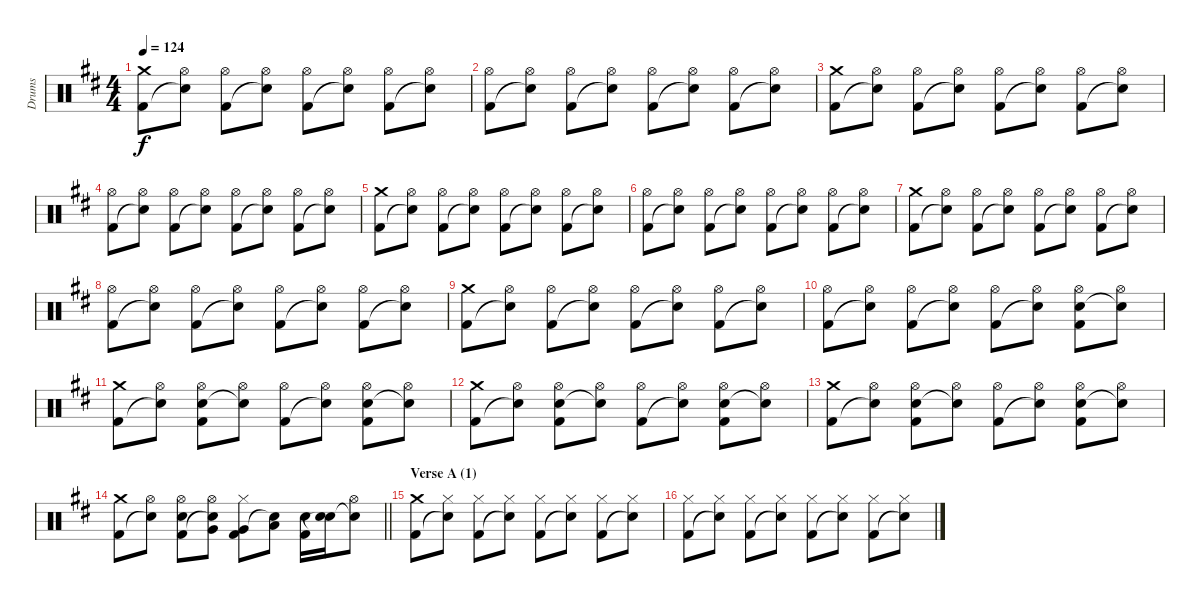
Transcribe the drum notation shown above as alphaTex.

\track ("Drums" "Drums") {instrument percussion}
\staff {score}
\articulation defaults
\ts (4 4)
\tempo 124
\clef neutral
\ks d
("Crash medium (hit)" "Kick (hit) 2").8{dy f} ("Hi-Hat (open)" "Snare (hit)"{t}).8 ("Hi-Hat (open)" "Kick (hit) 2").8 ("Hi-Hat (open)" "Snare (hit)"{t}).8 ("Hi-Hat (open)" "Kick (hit) 2").8 ("Hi-Hat (open)" "Snare (hit)"{t}).8 ("Hi-Hat (open)" "Kick (hit) 2").8 ("Hi-Hat (open)" "Snare (hit)"{t}).8 |
("Hi-Hat (open)" "Kick (hit) 2").8 ("Hi-Hat (open)" "Snare (hit)"{t}).8 ("Hi-Hat (open)" "Kick (hit) 2").8 ("Hi-Hat (open)" "Snare (hit)"{t}).8 ("Hi-Hat (open)" "Kick (hit) 2").8 ("Hi-Hat (open)" "Snare (hit)"{t}).8 ("Hi-Hat (open)" "Kick (hit) 2").8 ("Hi-Hat (open)" "Snare (hit)"{t}).8 |
("Crash medium (hit)" "Kick (hit) 2").8 ("Hi-Hat (open)" "Snare (hit)"{t}).8 ("Hi-Hat (open)" "Kick (hit) 2").8 ("Hi-Hat (open)" "Snare (hit)"{t}).8 ("Hi-Hat (open)" "Kick (hit) 2").8 ("Hi-Hat (open)" "Snare (hit)"{t}).8 ("Hi-Hat (open)" "Kick (hit) 2").8 ("Hi-Hat (open)" "Snare (hit)"{t}).8 |
("Hi-Hat (open)" "Kick (hit) 2").8 ("Hi-Hat (open)" "Snare (hit)"{t}).8 ("Hi-Hat (open)" "Kick (hit) 2").8 ("Hi-Hat (open)" "Snare (hit)"{t}).8 ("Hi-Hat (open)" "Kick (hit) 2").8 ("Hi-Hat (open)" "Snare (hit)"{t}).8 ("Hi-Hat (open)" "Kick (hit) 2").8 ("Hi-Hat (open)" "Snare (hit)"{t}).8 |
("Crash medium (hit)" "Kick (hit) 2").8 ("Hi-Hat (open)" "Snare (hit)"{t}).8 ("Hi-Hat (open)" "Kick (hit) 2").8 ("Hi-Hat (open)" "Snare (hit)"{t}).8 ("Hi-Hat (open)" "Kick (hit) 2").8 ("Hi-Hat (open)" "Snare (hit)"{t}).8 ("Hi-Hat (open)" "Kick (hit) 2").8 ("Hi-Hat (open)" "Snare (hit)"{t}).8 |
("Hi-Hat (open)" "Kick (hit) 2").8 ("Hi-Hat (open)" "Snare (hit)"{t}).8 ("Hi-Hat (open)" "Kick (hit) 2").8 ("Hi-Hat (open)" "Snare (hit)"{t}).8 ("Hi-Hat (open)" "Kick (hit) 2").8 ("Hi-Hat (open)" "Snare (hit)"{t}).8 ("Hi-Hat (open)" "Kick (hit) 2").8 ("Hi-Hat (open)" "Snare (hit)"{t}).8 |
("Crash medium (hit)" "Kick (hit) 2").8 ("Hi-Hat (open)" "Snare (hit)"{t}).8 ("Hi-Hat (open)" "Kick (hit) 2").8 ("Hi-Hat (open)" "Snare (hit)"{t}).8 ("Hi-Hat (open)" "Kick (hit) 2").8 ("Hi-Hat (open)" "Snare (hit)"{t}).8 ("Hi-Hat (open)" "Kick (hit) 2").8 ("Hi-Hat (open)" "Snare (hit)"{t}).8 |
("Hi-Hat (open)" "Kick (hit) 2").8 ("Hi-Hat (open)" "Snare (hit)"{t}).8 ("Hi-Hat (open)" "Kick (hit) 2").8 ("Hi-Hat (open)" "Snare (hit)"{t}).8 ("Hi-Hat (open)" "Kick (hit) 2").8 ("Hi-Hat (open)" "Snare (hit)"{t}).8 ("Hi-Hat (open)" "Kick (hit) 2").8 ("Hi-Hat (open)" "Snare (hit)"{t}).8 |
("Crash medium (hit)" "Kick (hit) 2").8 ("Hi-Hat (open)" "Snare (hit)"{t}).8 ("Hi-Hat (open)" "Kick (hit) 2").8 ("Hi-Hat (open)" "Snare (hit)"{t}).8 ("Hi-Hat (open)" "Kick (hit) 2").8 ("Hi-Hat (open)" "Snare (hit)"{t}).8 ("Hi-Hat (open)" "Kick (hit) 2").8 ("Hi-Hat (open)" "Snare (hit)"{t}).8 |
("Hi-Hat (open)" "Kick (hit) 2").8 ("Hi-Hat (open)" "Snare (hit)"{t}).8 ("Hi-Hat (open)" "Kick (hit) 2").8 ("Hi-Hat (open)" "Snare (hit)"{t}).8 ("Hi-Hat (open)" "Kick (hit) 2").8 ("Hi-Hat (open)" "Snare (hit)"{t}).8 ("Hi-Hat (open)" "Electric Snare (hit)" "Kick (hit) 2").8 ("Hi-Hat (open)" "Snare (hit)"{t}).8 |
("Crash medium (hit)" "Kick (hit) 2").8 ("Hi-Hat (open)" "Snare (hit)"{t}).8 ("Hi-Hat (open)" "Electric Snare (hit)" "Kick (hit) 2").8 ("Hi-Hat (open)" "Snare (hit)"{t}).8 ("Hi-Hat (open)" "Kick (hit) 2").8 ("Hi-Hat (open)" "Snare (hit)"{t}).8 ("Hi-Hat (open)" "Electric Snare (hit)" "Kick (hit) 2").8 ("Hi-Hat (open)" "Snare (hit)"{t}).8 |
("Crash medium (hit)" "Kick (hit) 2").8 ("Hi-Hat (open)" "Snare (hit)"{t}).8 ("Hi-Hat (open)" "Electric Snare (hit)" "Kick (hit) 2").8 ("Hi-Hat (open)" "Snare (hit)"{t}).8 ("Hi-Hat (open)" "Kick (hit) 2").8 ("Hi-Hat (open)" "Snare (hit)"{t}).8 ("Hi-Hat (open)" "Electric Snare (hit)" "Kick (hit) 2").8 ("Hi-Hat (open)" "Snare (hit)"{t}).8 |
("Crash medium (hit)" "Kick (hit) 2").8 ("Hi-Hat (open)" "Snare (hit)"{t}).8 ("Hi-Hat (open)" "Electric Snare (hit)" "Kick (hit) 2").8 ("Hi-Hat (open)" "Snare (hit)"{t}).8 ("Hi-Hat (open)" "Kick (hit) 2").8 ("Hi-Hat (open)" "Snare (hit)"{t}).8 ("Hi-Hat (open)" "Electric Snare (hit)" "Kick (hit) 2").8 ("Hi-Hat (open)" "Snare (hit)"{t}).8 |
\barLineRight lightlight
("Crash medium (hit)" "Kick (hit) 2").8 ("Hi-Hat (open)" "Snare (hit)"{t}).8 ("Hi-Hat (open)" "Electric Snare (hit)" "Kick (hit) 2").8 ("Hi-Hat (open)" "Very Low Tom (hit)" "Snare (hit)"{t}).8 ("Hi-Hat (closed)" "Very Low Tom (hit)" "Kick (hit) 2").8 ("Low Floor Tom (hit)" "Snare (hit)"{t}).8 ("Electric Snare (hit)" "Kick (hit) 2").16 ("Electric Snare (hit)" "Snare (hit)"{t}).16 ("Hi-Hat (open)" "Snare (hit)"{t}).8 |
\section ("" "Verse A (1)")
("Crash medium (hit)" "Kick (hit) 2").8 ("Hi-Hat (closed)" "Snare (hit)"{t}).8 ("Hi-Hat (closed)" "Kick (hit) 2").8 ("Hi-Hat (closed)" "Snare (hit)"{t}).8 ("Hi-Hat (closed)" "Kick (hit) 2").8 ("Hi-Hat (closed)" "Snare (hit)"{t}).8 ("Hi-Hat (closed)" "Kick (hit) 2").8 ("Hi-Hat (closed)" "Snare (hit)"{t}).8 |
("Hi-Hat (closed)" "Kick (hit) 2").8 ("Hi-Hat (closed)" "Snare (hit)"{t}).8 ("Hi-Hat (closed)" "Kick (hit) 2").8 ("Hi-Hat (closed)" "Snare (hit)"{t}).8 ("Hi-Hat (closed)" "Kick (hit) 2").8 ("Hi-Hat (closed)" "Snare (hit)"{t}).8 ("Hi-Hat (closed)" "Kick (hit) 2").8 ("Hi-Hat (closed)" "Snare (hit)"{t}).8
